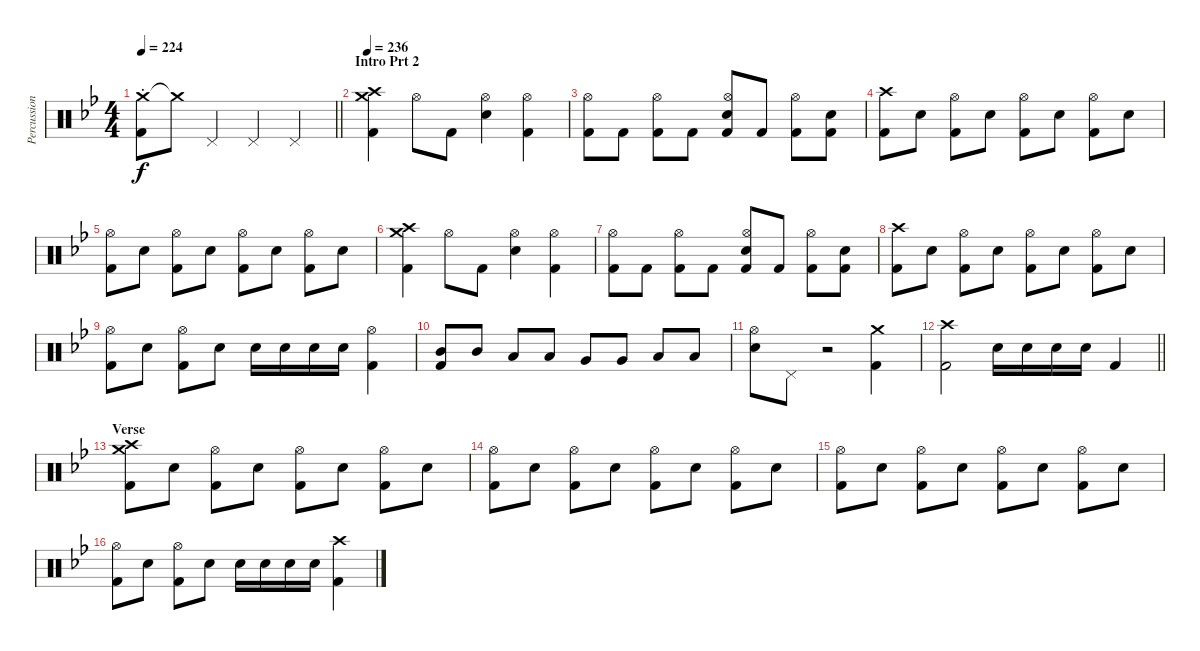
\track ("Percussion" "Percussion") {instrument percussion}
\staff {score}
\articulation defaults
\ts (4 4)
\tempo 224
\clef neutral
\barLineRight lightlight
\ks bb
("Crash medium (hit)"{st} "Kick (hit) 2").8{dy f} "Crash medium (hit)"{t}.8{volume 0} "Pedal Hi-Hat (hit)".4{volume 12} "Pedal Hi-Hat (hit)".4 "Pedal Hi-Hat (hit)".4 |
\section ("" "Intro Prt 2")
\tempo 236
("Crash medium (hit)" "Crash high (hit)" "Kick (hit) 2").4{volume 14} "Hi-Hat (open)".8 "Kick (hit) 2".8 ("Hi-Hat (open)" "Electric Snare (hit)").4 ("Hi-Hat (open)" "Kick (hit) 2").4 |
("Hi-Hat (open)" "Kick (hit) 2").8 "Kick (hit) 2".8 ("Hi-Hat (open)" "Kick (hit) 2").8 "Kick (hit) 2".8 ("Hi-Hat (open)" "Electric Snare (hit)" "Kick (hit) 2").8 "Kick (hit) 2".8 ("Hi-Hat (open)" "Kick (hit) 2").8 ("Electric Snare (hit)" "Kick (hit) 2").8 |
("Crash high (hit)" "Kick (hit) 2").8 "Electric Snare (hit)".8 ("Hi-Hat (open)" "Kick (hit) 2").8 "Electric Snare (hit)".8 ("Hi-Hat (open)" "Kick (hit) 2").8 "Electric Snare (hit)".8 ("Hi-Hat (open)" "Kick (hit) 2").8 "Electric Snare (hit)".8 |
("Hi-Hat (open)" "Kick (hit) 2").8 "Electric Snare (hit)".8 ("Hi-Hat (open)" "Kick (hit) 2").8 "Electric Snare (hit)".8 ("Hi-Hat (open)" "Kick (hit) 2").8 "Electric Snare (hit)".8 ("Hi-Hat (open)" "Kick (hit) 2").8 "Electric Snare (hit)".8 |
("Crash medium (hit)" "Crash high (hit)" "Kick (hit) 2").4 "Hi-Hat (open)".8 "Kick (hit) 2".8 ("Hi-Hat (open)" "Electric Snare (hit)").4 ("Hi-Hat (open)" "Kick (hit) 2").4 |
("Hi-Hat (open)" "Kick (hit) 2").8 "Kick (hit) 2".8 ("Hi-Hat (open)" "Kick (hit) 2").8 "Kick (hit) 2".8 ("Hi-Hat (open)" "Electric Snare (hit)" "Kick (hit) 2").8 "Kick (hit) 2".8 ("Hi-Hat (open)" "Kick (hit) 2").8 ("Electric Snare (hit)" "Kick (hit) 2").8 |
("Crash high (hit)" "Kick (hit) 2").8 "Electric Snare (hit)".8 ("Hi-Hat (open)" "Kick (hit) 2").8 "Electric Snare (hit)".8 ("Hi-Hat (open)" "Kick (hit) 2").8 "Electric Snare (hit)".8 ("Hi-Hat (open)" "Kick (hit) 2").8 "Electric Snare (hit)".8 |
("Hi-Hat (open)" "Kick (hit) 2").8 "Electric Snare (hit)".8 ("Hi-Hat (open)" "Kick (hit) 2").8 "Electric Snare (hit)".8 "Electric Snare (hit)".16 "Electric Snare (hit)".16 "Electric Snare (hit)".16 "Electric Snare (hit)".16 ("Hi-Hat (open)" "Kick (hit) 2").4 |
("Mid Tom (hit)" "Kick (hit) 2").8 "Mid Tom (hit)".8 "Low Tom (hit)".8 "Low Tom (hit)".8 "Very Low Tom (hit)".8 "Very Low Tom (hit)".8 "Low Floor Tom (hit)".8 "Low Floor Tom (hit)".8 |
("Hi-Hat (open)" "Electric Snare (hit)").8 "Pedal Hi-Hat (hit)".8 r.2 ("Crash medium (hit)" "Kick (hit) 2").4 |
\barLineRight lightlight
("Crash high (hit)" "Kick (hit) 2").2 "Electric Snare (hit)".16 "Electric Snare (hit)".16 "Electric Snare (hit)".16 "Electric Snare (hit)".16 "Kick (hit) 2".4 |
\section ("" "Verse")
("Crash medium (hit)" "Crash high (hit)" "Kick (hit) 2").8 "Electric Snare (hit)".8 ("Hi-Hat (open)" "Kick (hit) 2").8 "Electric Snare (hit)".8 ("Hi-Hat (open)" "Kick (hit) 2").8 "Electric Snare (hit)".8 ("Hi-Hat (open)" "Kick (hit) 2").8 "Electric Snare (hit)".8 |
("Hi-Hat (open)" "Kick (hit) 2").8 "Electric Snare (hit)".8 ("Hi-Hat (open)" "Kick (hit) 2").8 "Electric Snare (hit)".8 ("Hi-Hat (open)" "Kick (hit) 2").8 "Electric Snare (hit)".8 ("Hi-Hat (open)" "Kick (hit) 2").8 "Electric Snare (hit)".8 |
("Hi-Hat (open)" "Kick (hit) 2").8 "Electric Snare (hit)".8 ("Hi-Hat (open)" "Kick (hit) 2").8 "Electric Snare (hit)".8 ("Hi-Hat (open)" "Kick (hit) 2").8 "Electric Snare (hit)".8 ("Hi-Hat (open)" "Kick (hit) 2").8 "Electric Snare (hit)".8 |
("Hi-Hat (open)" "Kick (hit) 2").8 "Electric Snare (hit)".8 ("Hi-Hat (open)" "Kick (hit) 2").8 "Electric Snare (hit)".8 "Electric Snare (hit)".16 "Electric Snare (hit)".16 "Electric Snare (hit)".16 "Electric Snare (hit)".16 ("Crash high (hit)" "Kick (hit) 2").4
